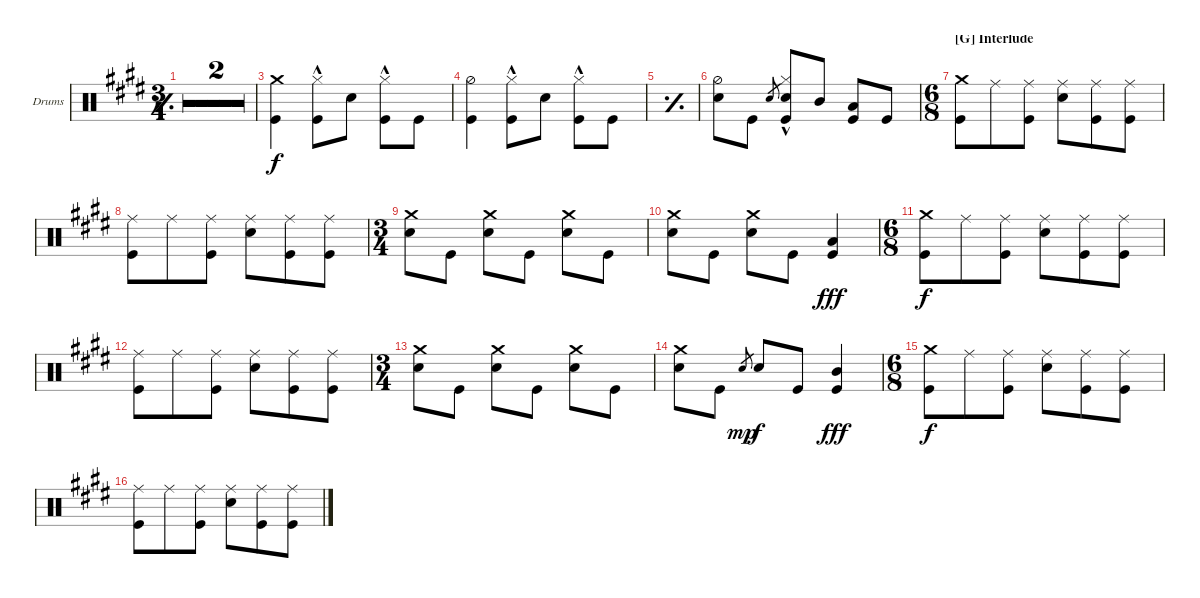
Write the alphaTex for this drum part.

\defaultSystemsLayout 4
\bracketExtendMode groupsimilarinstruments
\firstSystemTrackNameOrientation horizontal
\otherSystemsTrackNameOrientation horizontal
\track ("Dave Grohl (Drums)" "Drums") {multiBarRest instrument percussion}
\staff {score}
\articulation defaults
\ts (3 4)
\tempo
165.176
\accidentals auto
\clef neutral
\ottava regular
\simile simple
\ks e
|
|
\simile none
("Kick (hit)" "Crash medium (hit)").4 ("Kick (hit)" "Hi-Hat (closed)"{hac}).8 "Snare (hit) 2".8 ("Kick (hit)" "Hi-Hat (closed)"{hac}).8 "Kick (hit)".8 |
("Kick (hit)" "Hi-Hat (half)").4 ("Kick (hit)" "Hi-Hat (closed)"{hac}).8 "Snare (hit) 2".8 ("Kick (hit)" "Hi-Hat (closed)"{hac}).8 "Kick (hit)".8 |
\simile simple
|
\simile none
("Snare (hit) 2" "Hi-Hat (half)").8 "Kick (hit)".8 "Snare (hit) 2".8{gr} ("Kick (hit)" "Hi-Hat (closed)"{hac} "Snare (hit) 2").8 "Mid Tom (hit)".8 ("Kick (hit)" "Low Tom (hit)").8 "Kick (hit)".8 |
\ts (6 8)
\section ("G" "Interlude")
("Kick (hit)" "Crash medium (hit)").8 "Ride (middle)".8 ("Ride (middle)" "Kick (hit)").8 ("Snare (hit) 2" "Ride (middle)").8 ("Ride (middle)" "Kick (hit)").8 ("Ride (middle)" "Kick (hit)").8 |
("Kick (hit)" "Ride (middle)").8 "Ride (middle)".8 ("Ride (middle)" "Kick (hit)").8 ("Snare (hit) 2" "Ride (middle)").8 ("Ride (middle)" "Kick (hit)").8 ("Ride (middle)" "Kick (hit)").8 |
\ts (3 4)
("Snare (hit) 2" "Crash medium (hit)").8 "Kick (hit)".8 ("Crash medium (hit)" "Snare (hit) 2").8 "Kick (hit)".8 ("Crash medium (hit)" "Snare (hit) 2").8 "Kick (hit)".8 |
("Snare (hit) 2" "Crash medium (hit)").8 "Kick (hit)".8 ("Crash medium (hit)" "Snare (hit) 2").8 "Kick (hit)".8 ("Low Tom (hit)" "Kick (hit)").4{dy fff} |
\ts (6 8)
("Kick (hit)" "Crash medium (hit)").8{dy f} "Ride (middle)".8 ("Ride (middle)" "Kick (hit)").8 ("Snare (hit) 2" "Ride (middle)").8 ("Ride (middle)" "Kick (hit)").8 ("Ride (middle)" "Kick (hit)").8 |
("Kick (hit)" "Ride (middle)").8 "Ride (middle)".8 ("Ride (middle)" "Kick (hit)").8 ("Snare (hit) 2" "Ride (middle)").8 ("Ride (middle)" "Kick (hit)").8 ("Ride (middle)" "Kick (hit)").8 |
\ts (3 4)
("Snare (hit) 2" "Crash medium (hit)").8 "Kick (hit)".8 ("Crash medium (hit)" "Snare (hit) 2").8 "Kick (hit)".8 ("Crash medium (hit)" "Snare (hit) 2").8 "Kick (hit)".8 |
("Snare (hit) 2" "Crash medium (hit)").8 "Kick (hit)".8 "Snare (hit) 2".8{gr dy mp} "Snare (hit) 2".8{dy f} "Kick (hit)".8 ("Kick (hit)" "Mid Tom (hit)").4{dy fff} |
\ts (6 8)
("Kick (hit)" "Crash medium (hit)").8{dy f} "Ride (middle)".8 ("Ride (middle)" "Kick (hit)").8 ("Snare (hit) 2" "Ride (middle)").8 ("Ride (middle)" "Kick (hit)").8 ("Ride (middle)" "Kick (hit)").8 |
("Kick (hit)" "Ride (middle)").8 "Ride (middle)".8 ("Ride (middle)" "Kick (hit)").8 ("Snare (hit) 2" "Ride (middle)").8 ("Ride (middle)" "Kick (hit)").8 ("Ride (middle)" "Kick (hit)").8
